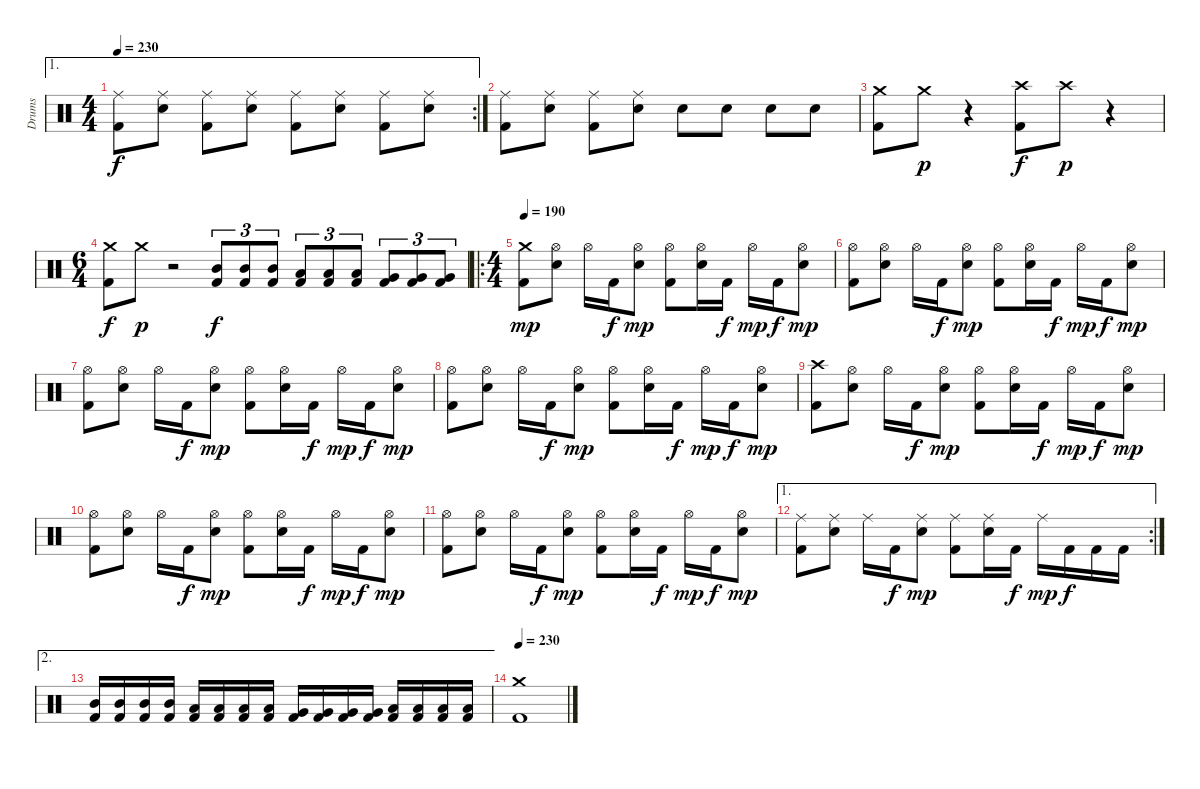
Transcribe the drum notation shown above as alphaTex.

\track ("Drums" "Drums") {instrument percussion}
\staff {score}
\articulation defaults
\ae 1
\rc 2
\ts (4 4)
\tempo 230
\clef neutral
\ks c
("Ride (middle)" "Kick (hit) 2").8{dy f} ("Ride (middle)" "Snare (hit) 2").8 ("Ride (middle)" "Kick (hit) 2").8 ("Ride (middle)" "Snare (hit) 2").8 ("Ride (middle)" "Kick (hit) 2").8 ("Ride (middle)" "Snare (hit) 2").8 ("Ride (middle)" "Kick (hit) 2").8 ("Ride (middle)" "Snare (hit) 2").8 |
("Ride (middle)" "Kick (hit) 2").8 ("Ride (middle)" "Snare (hit) 2").8 ("Ride (middle)" "Kick (hit) 2").8 ("Ride (middle)" "Snare (hit) 2").8 "Snare (hit) 2".8 "Snare (hit) 2".8 "Snare (hit) 2".8 "Snare (hit) 2".8 |
("Crash medium (hit)" "Kick (hit) 2").8 "Crash medium (hit)".8{dy p} r.4 ("Crash high (hit)" "Kick (hit) 2").8{dy f} "Crash high (hit)".8{dy p} r.4 |
\ts (6 4)
("Crash medium (hit)" "Kick (hit) 2").8{dy f} "Crash medium (hit)".8{dy p} r.2 ("Mid Tom (hit)" "Kick (hit) 2").8{tu (3 2) dy f} ("Mid Tom (hit)" "Kick (hit) 2").8{tu (3 2)} ("Mid Tom (hit)" "Kick (hit) 2").8{tu (3 2)} ("Low Tom (hit)" "Kick (hit) 2").8{tu (3 2)} ("Low Tom (hit)" "Kick (hit) 2").8{tu (3 2)} ("Low Tom (hit)" "Kick (hit) 2").8{tu (3 2)} ("Very Low Tom (hit)" "Kick (hit) 2").8{tu (3 2)} ("Very Low Tom (hit)" "Kick (hit) 2").8{tu (3 2)} ("Very Low Tom (hit)" "Kick (hit) 2").8{tu (3 2)} |
\ro
\ts (4 4)
\tempo 190
("Crash medium (hit)" "Kick (hit) 2").8{dy mp} ("Hi-Hat (open)" "Snare (hit) 2").8 "Hi-Hat (open)".16 "Kick (hit) 2".16{dy f} ("Hi-Hat (open)" "Snare (hit) 2").8{dy mp} ("Hi-Hat (open)" "Kick (hit) 2").8 ("Hi-Hat (open)" "Snare (hit) 2").16 "Kick (hit) 2".16{dy f} "Hi-Hat (open)".16{dy mp} "Kick (hit) 2".16{dy f} ("Hi-Hat (open)" "Snare (hit) 2").8{dy mp} |
("Hi-Hat (open)" "Kick (hit) 2").8 ("Hi-Hat (open)" "Snare (hit) 2").8 "Hi-Hat (open)".16 "Kick (hit) 2".16{dy f} ("Hi-Hat (open)" "Snare (hit) 2").8{dy mp} ("Hi-Hat (open)" "Kick (hit) 2").8 ("Hi-Hat (open)" "Snare (hit) 2").16 "Kick (hit) 2".16{dy f} "Hi-Hat (open)".16{dy mp} "Kick (hit) 2".16{dy f} ("Hi-Hat (open)" "Snare (hit) 2").8{dy mp} |
("Hi-Hat (open)" "Kick (hit) 2").8 ("Hi-Hat (open)" "Snare (hit) 2").8 "Hi-Hat (open)".16 "Kick (hit) 2".16{dy f} ("Hi-Hat (open)" "Snare (hit) 2").8{dy mp} ("Hi-Hat (open)" "Kick (hit) 2").8 ("Hi-Hat (open)" "Snare (hit) 2").16 "Kick (hit) 2".16{dy f} "Hi-Hat (open)".16{dy mp} "Kick (hit) 2".16{dy f} ("Hi-Hat (open)" "Snare (hit) 2").8{dy mp} |
("Hi-Hat (open)" "Kick (hit) 2").8 ("Hi-Hat (open)" "Snare (hit) 2").8 "Hi-Hat (open)".16 "Kick (hit) 2".16{dy f} ("Hi-Hat (open)" "Snare (hit) 2").8{dy mp} ("Hi-Hat (open)" "Kick (hit) 2").8 ("Hi-Hat (open)" "Snare (hit) 2").16 "Kick (hit) 2".16{dy f} "Hi-Hat (open)".16{dy mp} "Kick (hit) 2".16{dy f} ("Hi-Hat (open)" "Snare (hit) 2").8{dy mp} |
("Crash high (hit)" "Kick (hit) 2").8 ("Hi-Hat (open)" "Snare (hit) 2").8 "Hi-Hat (open)".16 "Kick (hit) 2".16{dy f} ("Hi-Hat (open)" "Snare (hit) 2").8{dy mp} ("Hi-Hat (open)" "Kick (hit) 2").8 ("Hi-Hat (open)" "Snare (hit) 2").16 "Kick (hit) 2".16{dy f} "Hi-Hat (open)".16{dy mp} "Kick (hit) 2".16{dy f} ("Hi-Hat (open)" "Snare (hit) 2").8{dy mp} |
("Hi-Hat (open)" "Kick (hit) 2").8 ("Hi-Hat (open)" "Snare (hit) 2").8 "Hi-Hat (open)".16 "Kick (hit) 2".16{dy f} ("Hi-Hat (open)" "Snare (hit) 2").8{dy mp} ("Hi-Hat (open)" "Kick (hit) 2").8 ("Hi-Hat (open)" "Snare (hit) 2").16 "Kick (hit) 2".16{dy f} "Hi-Hat (open)".16{dy mp} "Kick (hit) 2".16{dy f} ("Hi-Hat (open)" "Snare (hit) 2").8{dy mp} |
("Hi-Hat (open)" "Kick (hit) 2").8 ("Hi-Hat (open)" "Snare (hit) 2").8 "Hi-Hat (open)".16 "Kick (hit) 2".16{dy f} ("Hi-Hat (open)" "Snare (hit) 2").8{dy mp} ("Hi-Hat (open)" "Kick (hit) 2").8 ("Hi-Hat (open)" "Snare (hit) 2").16 "Kick (hit) 2".16{dy f} "Hi-Hat (open)".16{dy mp} "Kick (hit) 2".16{dy f} ("Hi-Hat (open)" "Snare (hit) 2").8{dy mp} |
\ae 1
\rc 2
("Ride (middle)" "Kick (hit) 2").8 ("Ride (middle)" "Snare (hit) 2").8 "Ride (middle)".16 "Kick (hit) 2".16{dy f} ("Ride (middle)" "Snare (hit) 2").8{dy mp} ("Ride (middle)" "Kick (hit) 2").8 ("Ride (middle)" "Snare (hit) 2").16 "Kick (hit) 2".16{dy f} "Ride (middle)".16{dy mp} "Kick (hit) 2".16{dy f} "Kick (hit) 2".16 "Kick (hit) 2".16 |
\ae 2
("Mid Tom (hit)" "Kick (hit) 2").16 ("Mid Tom (hit)" "Kick (hit) 2").16 ("Mid Tom (hit)" "Kick (hit) 2").16 ("Mid Tom (hit)" "Kick (hit) 2").16 ("Low Tom (hit)" "Kick (hit) 2").16 ("Low Tom (hit)" "Kick (hit) 2").16 ("Low Tom (hit)" "Kick (hit) 2").16 ("Low Tom (hit)" "Kick (hit) 2").16 ("Very Low Tom (hit)" "Kick (hit) 2").16 ("Very Low Tom (hit)" "Kick (hit) 2").16 ("Very Low Tom (hit)" "Kick (hit) 2").16 ("Very Low Tom (hit)" "Kick (hit) 2").16 ("Low Floor Tom (hit)" "Kick (hit) 2").16 ("Low Floor Tom (hit)" "Kick (hit) 2").16 ("Low Floor Tom (hit)" "Kick (hit) 2").16 ("Low Floor Tom (hit)" "Kick (hit) 2").16 |
\tempo 230
("Crash medium (hit)" "Kick (hit) 2").1
